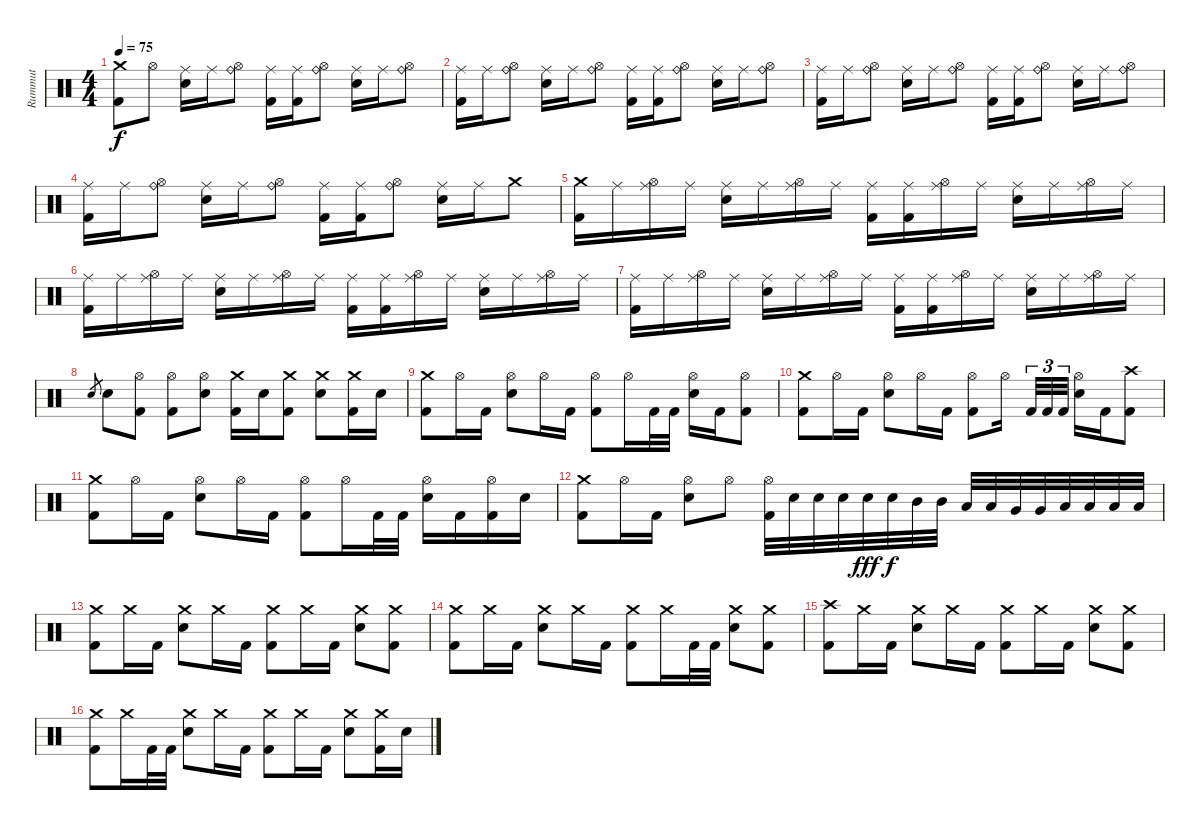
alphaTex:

\track ("Rummut" "Rummut") {instrument percussion}
\staff {score}
\articulation defaults
\ts (4 4)
\tempo 75
\clef neutral
\ks c
("Crash medium (hit)" "Kick (hit) 2").8{dy f} "Hi-Hat (open)".8 ("Ride (middle)" "Snare (hit) 2").16 "Ride (middle)".16 ("Hi-Hat (open)" "Ride (bell)").8 ("Ride (middle)" "Kick (hit) 2").16 ("Ride (middle)" "Kick (hit) 2").16 ("Hi-Hat (open)" "Ride (bell)").8 ("Ride (middle)" "Snare (hit) 2").16 "Ride (middle)".16 ("Hi-Hat (open)" "Ride (bell)").8 |
("Ride (middle)" "Kick (hit) 2").16 "Ride (middle)".16 ("Hi-Hat (open)" "Ride (bell)").8 ("Ride (middle)" "Snare (hit) 2").16 "Ride (middle)".16 ("Hi-Hat (open)" "Ride (bell)").8 ("Ride (middle)" "Kick (hit) 2").16 ("Ride (middle)" "Kick (hit) 2").16 ("Hi-Hat (open)" "Ride (bell)").8 ("Ride (middle)" "Snare (hit) 2").16 "Ride (middle)".16 ("Hi-Hat (open)" "Ride (bell)").8 |
("Ride (middle)" "Kick (hit) 2").16 "Ride (middle)".16 ("Hi-Hat (open)" "Ride (bell)").8 ("Ride (middle)" "Snare (hit) 2").16 "Ride (middle)".16 ("Hi-Hat (open)" "Ride (bell)").8 ("Ride (middle)" "Kick (hit) 2").16 ("Ride (middle)" "Kick (hit) 2").16 ("Hi-Hat (open)" "Ride (bell)").8 ("Ride (middle)" "Snare (hit) 2").16 "Ride (middle)".16 ("Hi-Hat (open)" "Ride (bell)").8 |
("Ride (middle)" "Kick (hit) 2").16 "Ride (middle)".16 ("Hi-Hat (open)" "Ride (bell)").8 ("Ride (middle)" "Snare (hit) 2").16 "Ride (middle)".16 ("Hi-Hat (open)" "Ride (bell)").8 ("Ride (middle)" "Kick (hit) 2").16 ("Ride (middle)" "Kick (hit) 2").16 ("Hi-Hat (open)" "Ride (bell)").8 ("Ride (middle)" "Snare (hit) 2").16 "Ride (middle)".16 "Crash medium (hit)".8 |
("Crash medium (hit)" "Kick (hit) 2").16 "Ride (middle)".16 ("Hi-Hat (open)" "Ride (middle)").16 "Ride (middle)".16 ("Ride (middle)" "Snare (hit) 2").16 "Ride (middle)".16 ("Hi-Hat (open)" "Ride (middle)").16 "Ride (middle)".16 ("Ride (middle)" "Kick (hit) 2").16 ("Ride (middle)" "Kick (hit) 2").16 ("Hi-Hat (open)" "Ride (middle)").16 "Ride (middle)".16 ("Ride (middle)" "Snare (hit) 2").16 "Ride (middle)".16 ("Hi-Hat (open)" "Ride (middle)").16 "Ride (middle)".16 |
("Ride (middle)" "Kick (hit) 2").16 "Ride (middle)".16 ("Hi-Hat (open)" "Ride (middle)").16 "Ride (middle)".16 ("Ride (middle)" "Snare (hit) 2").16 "Ride (middle)".16 ("Hi-Hat (open)" "Ride (middle)").16 "Ride (middle)".16 ("Ride (middle)" "Kick (hit) 2").16 ("Ride (middle)" "Kick (hit) 2").16 ("Hi-Hat (open)" "Ride (middle)").16 "Ride (middle)".16 ("Ride (middle)" "Snare (hit) 2").16 "Ride (middle)".16 ("Hi-Hat (open)" "Ride (middle)").16 "Ride (middle)".16 |
("Ride (middle)" "Kick (hit) 2").16 "Ride (middle)".16 ("Hi-Hat (open)" "Ride (middle)").16 "Ride (middle)".16 ("Ride (middle)" "Snare (hit) 2").16 "Ride (middle)".16 ("Hi-Hat (open)" "Ride (middle)").16 "Ride (middle)".16 ("Ride (middle)" "Kick (hit) 2").16 ("Ride (middle)" "Kick (hit) 2").16 ("Hi-Hat (open)" "Ride (middle)").16 "Ride (middle)".16 ("Ride (middle)" "Snare (hit) 2").16 "Ride (middle)".16 ("Hi-Hat (open)" "Ride (middle)").16 "Ride (middle)".16 |
"Snare (hit) 2".8{gr} "Snare (hit) 2".8 ("Hi-Hat (open)" "Kick (hit) 2").8 ("Hi-Hat (open)" "Kick (hit) 2").8 ("Hi-Hat (open)" "Snare (hit) 2").8 ("Crash medium (hit)" "Kick (hit) 2").16 "Snare (hit) 2".16 ("Crash medium (hit)" "Kick (hit) 2").8 ("Crash medium (hit)" "Snare (hit) 2").8 ("Crash medium (hit)" "Kick (hit) 2").16 "Snare (hit) 2".16 |
("Crash medium (hit)" "Kick (hit) 2").8 "Hi-Hat (open)".16 "Kick (hit) 2".16 ("Hi-Hat (open)" "Snare (hit) 2").8 "Hi-Hat (open)".16 "Kick (hit) 2".16 ("Hi-Hat (open)" "Kick (hit) 2").8 "Hi-Hat (open)".16 "Kick (hit) 2".32 "Kick (hit) 2".32 ("Hi-Hat (open)" "Snare (hit) 2").16 "Kick (hit) 2".16 ("Hi-Hat (open)" "Kick (hit) 2").8 |
("Crash medium (hit)" "Kick (hit) 2").8 "Hi-Hat (open)".16 "Kick (hit) 2".16 ("Hi-Hat (open)" "Snare (hit) 2").8 "Hi-Hat (open)".16 "Kick (hit) 2".16 ("Hi-Hat (open)" "Kick (hit) 2").8 "Hi-Hat (open)".16{beam splitsecondary} "Kick (hit) 2".32{tu (3 2)} "Kick (hit) 2".32{tu (3 2)} "Kick (hit) 2".32{tu (3 2)} ("Hi-Hat (open)" "Snare (hit) 2").16 "Kick (hit) 2".16 ("Crash high (hit)" "Kick (hit) 2").8 |
("Crash medium (hit)" "Kick (hit) 2").8 "Hi-Hat (open)".16 "Kick (hit) 2".16 ("Hi-Hat (open)" "Snare (hit) 2").8 "Hi-Hat (open)".16 "Kick (hit) 2".16 ("Hi-Hat (open)" "Kick (hit) 2").8 "Hi-Hat (open)".16 "Kick (hit) 2".32 "Kick (hit) 2".32 ("Hi-Hat (open)" "Snare (hit) 2").16 "Kick (hit) 2".16 ("Hi-Hat (open)" "Kick (hit) 2").16 "Snare (hit) 2".16 |
("Crash medium (hit)" "Kick (hit) 2").8 "Hi-Hat (open)".16 "Kick (hit) 2".16 ("Hi-Hat (open)" "Snare (hit) 2").8 "Hi-Hat (open)".8 ("Hi-Hat (open)" "Kick (hit) 2").32 "Snare (hit) 2".32 "Snare (hit) 2".32 "Snare (hit) 2".32 "Snare (hit) 2".32{dy fff} "Snare (hit) 2".32{dy f} "Mid Tom (hit)".32 "Mid Tom (hit)".32 "Low Tom (hit)".32 "Low Tom (hit)".32 "Very Low Tom (hit)".32 "Very Low Tom (hit)".32 "Low Floor Tom (hit)".32 "Low Floor Tom (hit)".32 "Low Floor Tom (hit)".32 "Low Floor Tom (hit)".32 |
("Crash medium (hit)" "Kick (hit) 2").8 "Crash medium (hit)".16 "Kick (hit) 2".16 ("Crash medium (hit)" "Snare (hit) 2").8 "Crash medium (hit)".16 "Kick (hit) 2".16 ("Crash medium (hit)" "Kick (hit) 2").8 "Crash medium (hit)".16 "Kick (hit) 2".16 ("Crash medium (hit)" "Snare (hit) 2").8 ("Crash medium (hit)" "Kick (hit) 2").8 |
("Crash medium (hit)" "Kick (hit) 2").8 "Crash medium (hit)".16 "Kick (hit) 2".16 ("Crash medium (hit)" "Snare (hit) 2").8 "Crash medium (hit)".16 "Kick (hit) 2".16 ("Crash medium (hit)" "Kick (hit) 2").8 "Crash medium (hit)".16 "Kick (hit) 2".32 "Kick (hit) 2".32 ("Crash medium (hit)" "Snare (hit) 2").8 ("Crash medium (hit)" "Kick (hit) 2").8 |
("Crash high (hit)" "Kick (hit) 2").8 "Crash medium (hit)".16 "Kick (hit) 2".16 ("Crash medium (hit)" "Snare (hit) 2").8 "Crash medium (hit)".16 "Kick (hit) 2".16 ("Crash medium (hit)" "Kick (hit) 2").8 "Crash medium (hit)".16 "Kick (hit) 2".16 ("Crash medium (hit)" "Snare (hit) 2").8 ("Crash medium (hit)" "Kick (hit) 2").8 |
("Crash medium (hit)" "Kick (hit) 2").8 "Crash medium (hit)".16 "Kick (hit) 2".32 "Kick (hit) 2".32 ("Crash medium (hit)" "Snare (hit) 2").8 "Crash medium (hit)".16 "Kick (hit) 2".16 ("Crash medium (hit)" "Kick (hit) 2").8 "Crash medium (hit)".16 "Kick (hit) 2".16 ("Crash medium (hit)" "Snare (hit) 2").8 ("Crash medium (hit)" "Kick (hit) 2").16 "Snare (hit) 2".16
